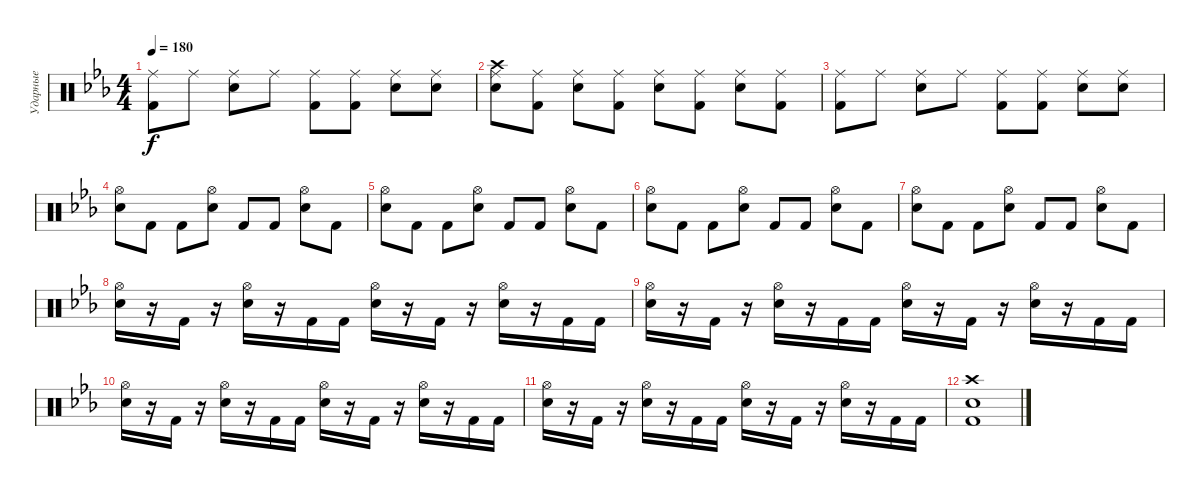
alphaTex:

\track ("Ударные" "Ударные") {instrument percussion}
\staff {score}
\articulation defaults
\ts (4 4)
\tempo 180
\clef neutral
\ks eb
("Ride (middle)" "Kick (hit) 2").8{dy f} "Ride (middle)".8 ("Ride (middle)" "Electric Snare (hit)").8 "Ride (middle)".8 ("Ride (middle)" "Kick (hit) 2").8 ("Ride (middle)" "Kick (hit) 2").8 ("Ride (middle)" "Electric Snare (hit)").8 ("Ride (middle)" "Electric Snare (hit)").8 |
("Ride (middle)" "Electric Snare (hit)" "Crash high (hit)").8 ("Ride (middle)" "Kick (hit) 2").8 ("Ride (middle)" "Electric Snare (hit)").8 ("Ride (middle)" "Kick (hit) 2").8 ("Ride (middle)" "Electric Snare (hit)").8 ("Ride (middle)" "Kick (hit) 2").8 ("Ride (middle)" "Electric Snare (hit)").8 ("Ride (middle)" "Kick (hit) 2").8 |
("Ride (middle)" "Kick (hit) 2").8 "Ride (middle)".8 ("Ride (middle)" "Electric Snare (hit)").8 "Ride (middle)".8 ("Ride (middle)" "Kick (hit) 2").8 ("Ride (middle)" "Kick (hit) 2").8 ("Ride (middle)" "Electric Snare (hit)").8 ("Ride (middle)" "Electric Snare (hit)").8 |
("Hi-Hat (open)" "Electric Snare (hit)").8 "Kick (hit) 2".8 "Kick (hit) 2".8 ("Hi-Hat (open)" "Electric Snare (hit)").8 "Kick (hit) 2".8 "Kick (hit) 2".8 ("Hi-Hat (open)" "Electric Snare (hit)").8 "Kick (hit) 2".8 |
("Hi-Hat (open)" "Electric Snare (hit)").8 "Kick (hit) 2".8 "Kick (hit) 2".8 ("Hi-Hat (open)" "Electric Snare (hit)").8 "Kick (hit) 2".8 "Kick (hit) 2".8 ("Hi-Hat (open)" "Electric Snare (hit)").8 "Kick (hit) 2".8 |
("Hi-Hat (open)" "Electric Snare (hit)").8 "Kick (hit) 2".8 "Kick (hit) 2".8 ("Hi-Hat (open)" "Electric Snare (hit)").8 "Kick (hit) 2".8 "Kick (hit) 2".8 ("Hi-Hat (open)" "Electric Snare (hit)").8 "Kick (hit) 2".8 |
("Hi-Hat (open)" "Electric Snare (hit)").8 "Kick (hit) 2".8 "Kick (hit) 2".8 ("Hi-Hat (open)" "Electric Snare (hit)").8 "Kick (hit) 2".8 "Kick (hit) 2".8 ("Hi-Hat (open)" "Electric Snare (hit)").8 "Kick (hit) 2".8 |
("Hi-Hat (open)" "Electric Snare (hit)").16 r.16 "Kick (hit) 2".16 r.16 ("Hi-Hat (open)" "Electric Snare (hit)").16 r.16 "Kick (hit) 2".16 "Kick (hit) 2".16 ("Hi-Hat (open)" "Electric Snare (hit)").16 r.16 "Kick (hit) 2".16 r.16 ("Hi-Hat (open)" "Electric Snare (hit)").16 r.16 "Kick (hit) 2".16 "Kick (hit) 2".16 |
("Hi-Hat (open)" "Electric Snare (hit)").16 r.16 "Kick (hit) 2".16 r.16 ("Hi-Hat (open)" "Electric Snare (hit)").16 r.16 "Kick (hit) 2".16 "Kick (hit) 2".16 ("Hi-Hat (open)" "Electric Snare (hit)").16 r.16 "Kick (hit) 2".16 r.16 ("Hi-Hat (open)" "Electric Snare (hit)").16 r.16 "Kick (hit) 2".16 "Kick (hit) 2".16 |
("Hi-Hat (open)" "Electric Snare (hit)").16 r.16 "Kick (hit) 2".16 r.16 ("Hi-Hat (open)" "Electric Snare (hit)").16 r.16 "Kick (hit) 2".16 "Kick (hit) 2".16 ("Hi-Hat (open)" "Electric Snare (hit)").16 r.16 "Kick (hit) 2".16 r.16 ("Hi-Hat (open)" "Electric Snare (hit)").16 r.16 "Kick (hit) 2".16 "Kick (hit) 2".16 |
("Hi-Hat (open)" "Electric Snare (hit)").16 r.16 "Kick (hit) 2".16 r.16 ("Hi-Hat (open)" "Electric Snare (hit)").16 r.16 "Kick (hit) 2".16 "Kick (hit) 2".16 ("Hi-Hat (open)" "Electric Snare (hit)").16 r.16 "Kick (hit) 2".16 r.16 ("Hi-Hat (open)" "Electric Snare (hit)").16 r.16 "Kick (hit) 2".16 "Kick (hit) 2".16 |
("Crash high (hit)" "Kick (hit) 2" "Electric Snare (hit)").1
